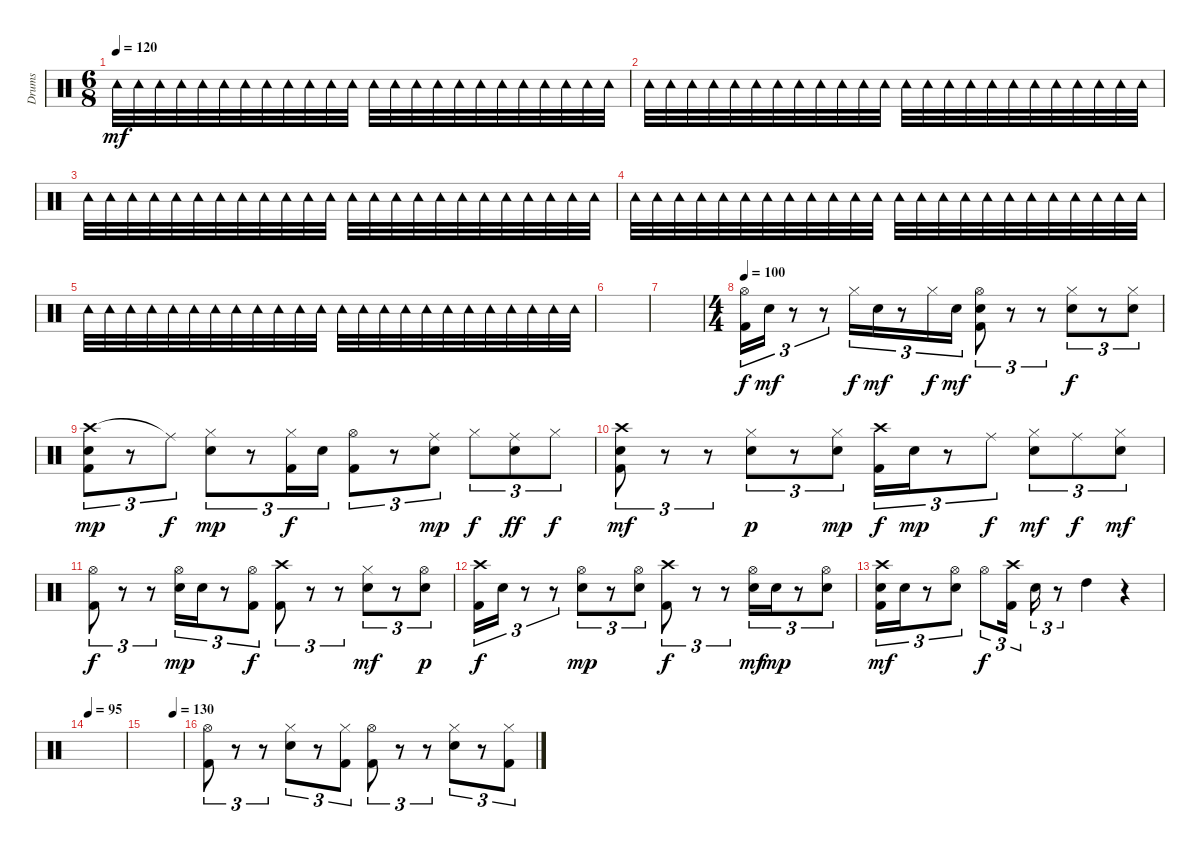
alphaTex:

\track ("Drums" "Drums") {instrument percussion}
\staff {score}
\articulation defaults
\ts (6 8)
\tempo 120
\clef neutral
\ks c "Tambourine (hit)".32{dy mf} "Tambourine (hit)".32 "Tambourine (hit)".32 "Tambourine (hit)".32 "Tambourine (hit)".32 "Tambourine (hit)".32 "Tambourine (hit)".32 "Tambourine (hit)".32 "Tambourine (hit)".32 "Tambourine (hit)".32 "Tambourine (hit)".32 "Tambourine (hit)".32 "Tambourine (hit)".32 "Tambourine (hit)".32 "Tambourine (hit)".32 "Tambourine (hit)".32 "Tambourine (hit)".32 "Tambourine (hit)".32 "Tambourine (hit)".32 "Tambourine (hit)".32 "Tambourine (hit)".32 "Tambourine (hit)".32 "Tambourine (hit)".32 "Tambourine (hit)".32
|
"Tambourine (hit)".32 "Tambourine (hit)".32 "Tambourine (hit)".32 "Tambourine (hit)".32 "Tambourine (hit)".32 "Tambourine (hit)".32 "Tambourine (hit)".32 "Tambourine (hit)".32 "Tambourine (hit)".32 "Tambourine (hit)".32 "Tambourine (hit)".32 "Tambourine (hit)".32 "Tambourine (hit)".32 "Tambourine (hit)".32 "Tambourine (hit)".32 "Tambourine (hit)".32 "Tambourine (hit)".32 "Tambourine (hit)".32 "Tambourine (hit)".32 "Tambourine (hit)".32 "Tambourine (hit)".32 "Tambourine (hit)".32 "Tambourine (hit)".32 "Tambourine (hit)".32 |
"Tambourine (hit)".32 "Tambourine (hit)".32 "Tambourine (hit)".32 "Tambourine (hit)".32 "Tambourine (hit)".32 "Tambourine (hit)".32 "Tambourine (hit)".32 "Tambourine (hit)".32 "Tambourine (hit)".32 "Tambourine (hit)".32 "Tambourine (hit)".32 "Tambourine (hit)".32 "Tambourine (hit)".32 "Tambourine (hit)".32 "Tambourine (hit)".32 "Tambourine (hit)".32 "Tambourine (hit)".32 "Tambourine (hit)".32 "Tambourine (hit)".32 "Tambourine (hit)".32 "Tambourine (hit)".32 "Tambourine (hit)".32 "Tambourine (hit)".32 "Tambourine (hit)".32 |
"Tambourine (hit)".32 "Tambourine (hit)".32 "Tambourine (hit)".32 "Tambourine (hit)".32 "Tambourine (hit)".32 "Tambourine (hit)".32 "Tambourine (hit)".32 "Tambourine (hit)".32 "Tambourine (hit)".32 "Tambourine (hit)".32 "Tambourine (hit)".32 "Tambourine (hit)".32 "Tambourine (hit)".32 "Tambourine (hit)".32 "Tambourine (hit)".32 "Tambourine (hit)".32 "Tambourine (hit)".32 "Tambourine (hit)".32 "Tambourine (hit)".32 "Tambourine (hit)".32 "Tambourine (hit)".32 "Tambourine (hit)".32 "Tambourine (hit)".32 "Tambourine (hit)".32 |
"Tambourine (hit)".32 "Tambourine (hit)".32 "Tambourine (hit)".32 "Tambourine (hit)".32 "Tambourine (hit)".32 "Tambourine (hit)".32 "Tambourine (hit)".32 "Tambourine (hit)".32 "Tambourine (hit)".32 "Tambourine (hit)".32 "Tambourine (hit)".32 "Tambourine (hit)".32 "Tambourine (hit)".32 "Tambourine (hit)".32 "Tambourine (hit)".32 "Tambourine (hit)".32 "Tambourine (hit)".32 "Tambourine (hit)".32 "Tambourine (hit)".32 "Tambourine (hit)".32 "Tambourine (hit)".32 "Tambourine (hit)".32 "Tambourine (hit)".32 "Tambourine (hit)".32 |
|
|
\ts (4 4)
\tempo 100
("Hi-Hat (open)" "Kick (hit) 2").16{tu (3 2) dy f} "Snare (hit) 2".16{tu (3 2) dy mf} r.8{tu (3 2)} r.8{tu (3 2)} "Hi-Hat (closed)".16{tu (3 2) dy f} "Snare (hit) 2".16{tu (3 2) dy mf} r.8{tu (3 2)} "Hi-Hat (closed)".16{tu (3 2) dy f} "Snare (hit) 2".16{tu (3 2) dy mf} ("Hi-Hat (open)" "Snare (hit) 2" "Kick (hit) 2").8{tu (3 2)} r.8{tu (3 2)} r.8{tu (3 2)} ("Hi-Hat (closed)" "Snare (hit) 2").8{tu (3 2) dy f} r.8{tu (3 2)} ("Hi-Hat (closed)" "Snare (hit) 2").8{tu (3 2)} |
("Crash high (hit)" "Snare (hit) 2" "Kick (hit) 2").8{tu (3 2) dy mp} r.8{tu (3 2)} "Ride (middle)"{t}.8{tu (3 2) dy f} ("Hi-Hat (closed)" "Snare (hit) 2").8{tu (3 2) dy mp} r.8{tu (3 2)} ("Hi-Hat (closed)" "Kick (hit) 2").16{tu (3 2) dy f} "Snare (hit) 2".16{tu (3 2)} ("Hi-Hat (open)" "Kick (hit) 2").8{tu (3 2)} r.8{tu (3 2)} ("Ride (middle)" "Snare (hit) 2").8{tu (3 2) dy mp} "Hi-Hat (closed)".8{tu (3 2) dy f} ("Ride (middle)" "Snare (hit) 2").8{tu (3 2) dy ff} "Hi-Hat (closed)".8{tu (3 2) dy f} |
("Crash high (hit)" "Snare (hit) 2" "Kick (hit) 2").8{tu (3 2) dy mf} r.8{tu (3 2)} r.8{tu (3 2)} ("Hi-Hat (closed)" "Snare (hit) 2").8{tu (3 2) dy p} r.8{tu (3 2)} ("Hi-Hat (closed)" "Snare (hit) 2").8{tu (3 2) dy mp} ("Crash high (hit)" "Kick (hit) 2").16{tu (3 2) dy f} "Snare (hit) 2".16{tu (3 2) dy mp} r.8{tu (3 2)} "Ride (middle)".8{tu (3 2) dy f} ("Hi-Hat (closed)" "Snare (hit) 2").8{tu (3 2) dy mf} "Ride (middle)".8{tu (3 2) dy f} ("Hi-Hat (closed)" "Snare (hit) 2").8{tu (3 2) dy mf} |
("Hi-Hat (open)" "Kick (hit) 2").8{tu (3 2) dy f} r.8{tu (3 2)} r.8{tu (3 2)} ("Hi-Hat (open)" "Snare (hit) 2").16{tu (3 2) dy mp} "Snare (hit) 2".16{tu (3 2)} r.8{tu (3 2)} ("Hi-Hat (open)" "Kick (hit) 2").8{tu (3 2) dy f} ("Crash high (hit)" "Kick (hit) 2").8{tu (3 2)} r.8{tu (3 2)} r.8{tu (3 2)} ("Hi-Hat (closed)" "Snare (hit) 2").8{tu (3 2) dy mf} r.8{tu (3 2)} ("Hi-Hat (open)" "Snare (hit) 2").8{tu (3 2) dy p} |
("Crash high (hit)" "Kick (hit) 2").16{tu (3 2) dy f} "Snare (hit) 2".16{tu (3 2)} r.8{tu (3 2)} r.8{tu (3 2)} ("Hi-Hat (open)" "Snare (hit) 2").8{tu (3 2) dy mp} r.8{tu (3 2)} ("Hi-Hat (open)" "Snare (hit) 2").8{tu (3 2)} ("Crash high (hit)" "Kick (hit) 2").8{tu (3 2) dy f} r.8{tu (3 2)} r.8{tu (3 2)} ("Hi-Hat (open)" "Snare (hit) 2").16{tu (3 2) dy mf} "Snare (hit) 2".16{tu (3 2) dy mp} r.8{tu (3 2)} ("Hi-Hat (open)" "Snare (hit) 2").8{tu (3 2)} |
("Crash high (hit)" "Snare (hit) 2" "Kick (hit) 2").16{tu (3 2) dy mf} "Snare (hit) 2".16{tu (3 2)} r.8{tu (3 2)} ("Hi-Hat (open)" "Snare (hit) 2").8{tu (3 2)} "Hi-Hat (open)".8{tu (3 2) dy f} ("Crash high (hit)" "Kick (hit) 2").16{tu (3 2)} "Snare (hit) 2".16{tu (3 2)} r.8{tu (3 2)} "High Tom (hit)".4 r.4 |
\tempo 95
|
\tempo (130 0.75)
|
("Hi-Hat (open)" "Kick (hit) 2").8{tu (3 2)} r.8{tu (3 2)} r.8{tu (3 2)} ("Hi-Hat (closed)" "Snare (hit) 2").8{tu (3 2)} r.8{tu (3 2)} ("Hi-Hat (closed)" "Kick (hit) 2").8{tu (3 2)} ("Hi-Hat (open)" "Kick (hit) 2").8{tu (3 2)} r.8{tu (3 2)} r.8{tu (3 2)} ("Hi-Hat (closed)" "Snare (hit) 2").8{tu (3 2)} r.8{tu (3 2)} ("Hi-Hat (closed)" "Kick (hit) 2").8{tu (3 2)}
